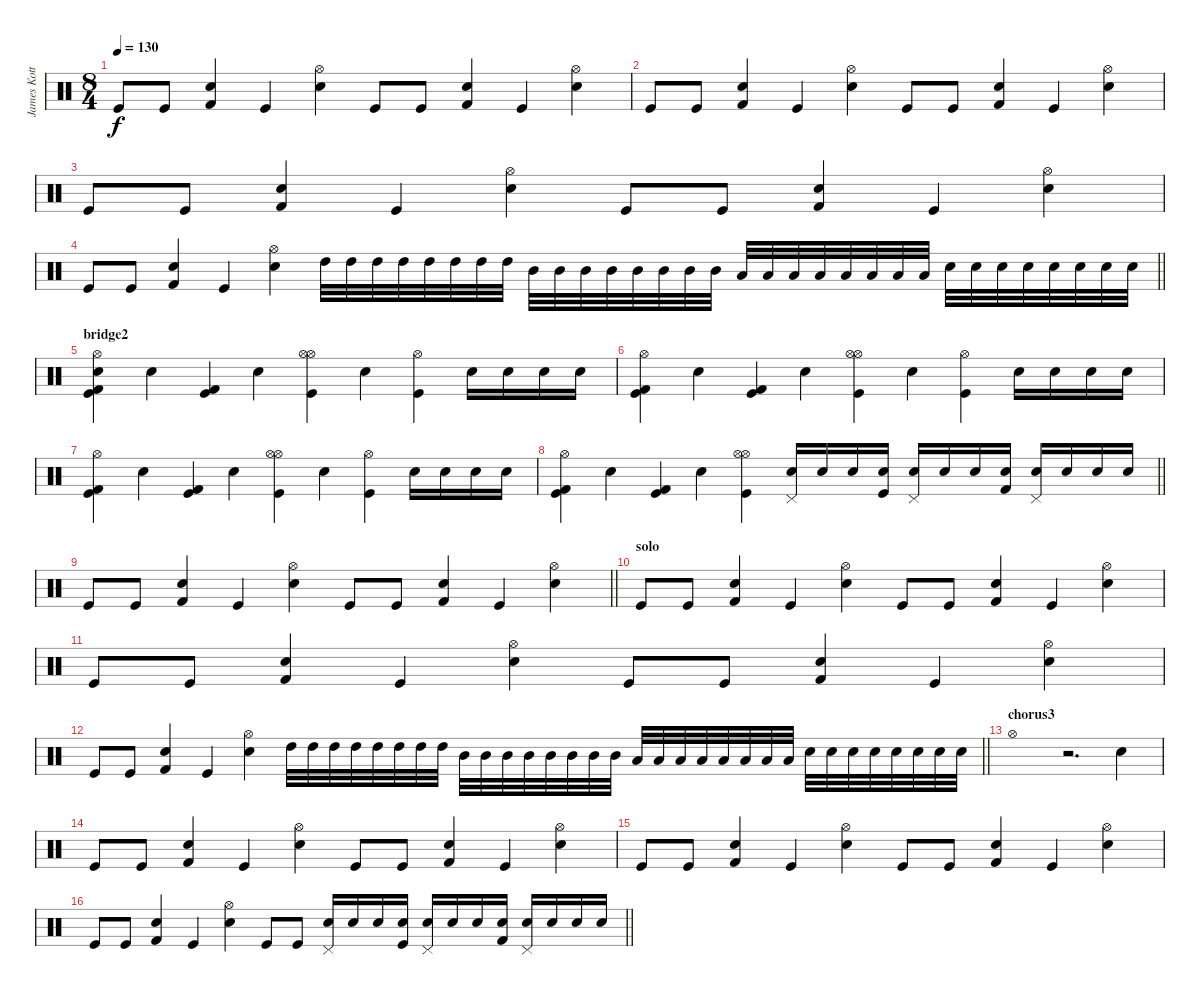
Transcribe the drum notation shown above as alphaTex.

\track ("James Kottak" "James Kott") {instrument percussion}
\staff {score}
\articulation defaults
\ts (8 4)
\tempo 130
\clef neutral
\ks c "Kick (hit)".8{dy f} "Kick (hit)".8
("Kick (hit) 2" "Snare (hit) 2").4 "Kick (hit)".4 ("Hi-Hat (open)" "Snare (hit) 2").4 "Kick (hit)".8 "Kick (hit)".8 ("Kick (hit) 2" "Snare (hit) 2").4 "Kick (hit)".4 ("Hi-Hat (open)" "Snare (hit) 2").4 |
"Kick (hit)".8 "Kick (hit)".8 ("Kick (hit) 2" "Snare (hit) 2").4 "Kick (hit)".4 ("Hi-Hat (open)" "Snare (hit) 2").4 "Kick (hit)".8 "Kick (hit)".8 ("Kick (hit) 2" "Snare (hit) 2").4 "Kick (hit)".4 ("Hi-Hat (open)" "Snare (hit) 2").4 |
"Kick (hit)".8 "Kick (hit)".8 ("Kick (hit) 2" "Snare (hit) 2").4 "Kick (hit)".4 ("Hi-Hat (open)" "Snare (hit) 2").4 "Kick (hit)".8 "Kick (hit)".8 ("Kick (hit) 2" "Snare (hit) 2").4 "Kick (hit)".4 ("Hi-Hat (open)" "Snare (hit) 2").4 |
\barLineRight lightlight "Kick (hit)".8 "Kick (hit)".8
("Kick (hit) 2" "Snare (hit) 2").4 "Kick (hit)".4 ("Hi-Hat (open)" "Snare (hit) 2").4 "High Tom (hit)".32 "High Tom (hit)".32 "High Tom (hit)".32 "High Tom (hit)".32 "High Tom (hit)".32 "High Tom (hit)".32 "High Tom (hit)".32 "High Tom (hit)".32 "Mid Tom (hit)".32 "Mid Tom (hit)".32 "Mid Tom (hit)".32 "Mid Tom (hit)".32 "Mid Tom (hit)".32 "Mid Tom (hit)".32 "Mid Tom (hit)".32 "Mid Tom (hit)".32 "Low Tom (hit)".32 "Low Tom (hit)".32 "Low Tom (hit)".32 "Low Tom (hit)".32 "Low Tom (hit)".32 "Low Tom (hit)".32 "Low Tom (hit)".32 "Low Tom (hit)".32 "Snare (hit) 2".32 "Snare (hit) 2".32 "Snare (hit) 2".32 "Snare (hit) 2".32 "Snare (hit) 2".32 "Snare (hit) 2".32 "Snare (hit) 2".32 "Snare (hit) 2".32 |
\section ("" "bridge2")
("Hi-Hat (open)" "Kick (hit)" "Kick (hit) 2" "Snare (hit) 2").4 "Snare (hit) 2".4 ("Kick (hit) 2" "Kick (hit)").4 "Snare (hit) 2".4 ("Hi-Hat (open)" "Kick (hit)" "Hi-Hat (open)").4 "Snare (hit) 2".4 ("Hi-Hat (open)" "Kick (hit)").4 "Snare (hit) 2".16 "Snare (hit) 2".16 "Snare (hit) 2".16 "Snare (hit) 2".16 |
("Hi-Hat (open)" "Kick (hit)" "Kick (hit) 2").4 "Snare (hit) 2".4 ("Kick (hit) 2" "Kick (hit)").4 "Snare (hit) 2".4 ("Hi-Hat (open)" "Kick (hit)" "Hi-Hat (open)").4 "Snare (hit) 2".4 ("Hi-Hat (open)" "Kick (hit)").4 "Snare (hit) 2".16 "Snare (hit) 2".16 "Snare (hit) 2".16 "Snare (hit) 2".16 |
("Hi-Hat (open)" "Kick (hit)" "Kick (hit) 2").4 "Snare (hit) 2".4 ("Kick (hit) 2" "Kick (hit)").4 "Snare (hit) 2".4 ("Hi-Hat (open)" "Kick (hit)" "Hi-Hat (open)").4 "Snare (hit) 2".4 ("Hi-Hat (open)" "Kick (hit)").4 "Snare (hit) 2".16 "Snare (hit) 2".16 "Snare (hit) 2".16 "Snare (hit) 2".16 |
\barLineRight lightlight
("Hi-Hat (open)" "Kick (hit)" "Kick (hit) 2").4 "Snare (hit) 2".4 ("Kick (hit) 2" "Kick (hit)").4 "Snare (hit) 2".4 ("Hi-Hat (open)" "Kick (hit)" "Hi-Hat (open)").4 ("Pedal Hi-Hat (hit)" "Snare (hit) 2").16 "Snare (hit) 2".16 "Snare (hit) 2".16 ("Snare (hit) 2" "Kick (hit)").16 ("Pedal Hi-Hat (hit)" "Snare (hit) 2").16 "Snare (hit) 2".16 "Snare (hit) 2".16 ("Snare (hit) 2" "Kick (hit) 2").16 ("Pedal Hi-Hat (hit)" "Snare (hit) 2").16 "Snare (hit) 2".16 "Snare (hit) 2".16 "Snare (hit) 2".16 |
\barLineRight lightlight "Kick (hit)".8 "Kick (hit)".8
("Kick (hit) 2" "Snare (hit) 2").4 "Kick (hit)".4 ("Hi-Hat (open)" "Snare (hit) 2").4 "Kick (hit)".8 "Kick (hit)".8 ("Kick (hit) 2" "Snare (hit) 2").4 "Kick (hit)".4 ("Hi-Hat (open)" "Snare (hit) 2").4 |
\section ("" "solo")
"Kick (hit)".8 "Kick (hit)".8 ("Kick (hit) 2" "Snare (hit) 2").4 "Kick (hit)".4 ("Hi-Hat (open)" "Snare (hit) 2").4 "Kick (hit)".8 "Kick (hit)".8 ("Kick (hit) 2" "Snare (hit) 2").4 "Kick (hit)".4 ("Hi-Hat (open)" "Snare (hit) 2").4 |
"Kick (hit)".8 "Kick (hit)".8 ("Kick (hit) 2" "Snare (hit) 2").4 "Kick (hit)".4 ("Hi-Hat (open)" "Snare (hit) 2").4 "Kick (hit)".8 "Kick (hit)".8 ("Kick (hit) 2" "Snare (hit) 2").4 "Kick (hit)".4 ("Hi-Hat (open)" "Snare (hit) 2").4 |
\barLineRight lightlight "Kick (hit)".8 "Kick (hit)".8
("Kick (hit) 2" "Snare (hit) 2").4 "Kick (hit)".4 ("Hi-Hat (open)" "Snare (hit) 2").4 "High Tom (hit)".32 "High Tom (hit)".32 "High Tom (hit)".32 "High Tom (hit)".32 "High Tom (hit)".32 "High Tom (hit)".32 "High Tom (hit)".32 "High Tom (hit)".32 "Mid Tom (hit)".32 "Mid Tom (hit)".32 "Mid Tom (hit)".32 "Mid Tom (hit)".32 "Mid Tom (hit)".32 "Mid Tom (hit)".32 "Mid Tom (hit)".32 "Mid Tom (hit)".32 "Low Tom (hit)".32 "Low Tom (hit)".32 "Low Tom (hit)".32 "Low Tom (hit)".32 "Low Tom (hit)".32 "Low Tom (hit)".32 "Low Tom (hit)".32 "Low Tom (hit)".32 "Snare (hit) 2".32 "Snare (hit) 2".32 "Snare (hit) 2".32 "Snare (hit) 2".32 "Snare (hit) 2".32 "Snare (hit) 2".32 "Snare (hit) 2".32 "Snare (hit) 2".32 |
\section ("" "chorus3")
"Hi-Hat (open)".1 r.2{d} "Snare (hit) 2".4 |
"Kick (hit)".8 "Kick (hit)".8 ("Kick (hit) 2" "Snare (hit) 2").4 "Kick (hit)".4 ("Hi-Hat (open)" "Snare (hit) 2").4 "Kick (hit)".8 "Kick (hit)".8 ("Kick (hit) 2" "Snare (hit) 2").4 "Kick (hit)".4 ("Hi-Hat (open)" "Snare (hit) 2").4 |
"Kick (hit)".8 "Kick (hit)".8 ("Kick (hit) 2" "Snare (hit) 2").4 "Kick (hit)".4 ("Hi-Hat (open)" "Snare (hit) 2").4 "Kick (hit)".8 "Kick (hit)".8 ("Kick (hit) 2" "Snare (hit) 2").4 "Kick (hit)".4 ("Hi-Hat (open)" "Snare (hit) 2").4 |
\barLineRight lightlight "Kick (hit)".8 "Kick (hit)".8
("Kick (hit) 2" "Snare (hit) 2").4 "Kick (hit)".4 ("Hi-Hat (open)" "Snare (hit) 2").4 "Kick (hit)".8 "Kick (hit)".8 ("Pedal Hi-Hat (hit)" "Snare (hit) 2").16 "Snare (hit) 2".16 "Snare (hit) 2".16 ("Snare (hit) 2" "Kick (hit)").16 ("Pedal Hi-Hat (hit)" "Snare (hit) 2").16 "Snare (hit) 2".16 "Snare (hit) 2".16 ("Snare (hit) 2" "Kick (hit) 2").16 ("Pedal Hi-Hat (hit)" "Snare (hit) 2").16 "Snare (hit) 2".16 "Snare (hit) 2".16 "Snare (hit) 2".16
